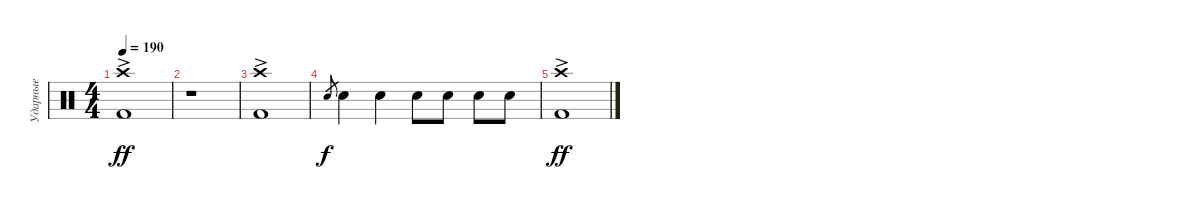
\track ("Ударные" "Ударные") {instrument percussion}
\staff {score}
\articulation defaults
\ts (4 4)
\tempo 190
\clef neutral
\ks c
("Kick (hit) 2" "Crash high (hit)"{ac}).1{dy ff} |
r.1 |
("Kick (hit) 2" "Crash high (hit)"{ac}).1 |
"Snare (hit) 2".8{gr dy f} "Snare (hit) 2".4 "Snare (hit) 2".4 "Snare (hit) 2".8 "Snare (hit) 2".8 "Snare (hit) 2".8 "Snare (hit) 2".8 |
("Kick (hit) 2" "Crash high (hit)"{ac}).1{dy ff}
